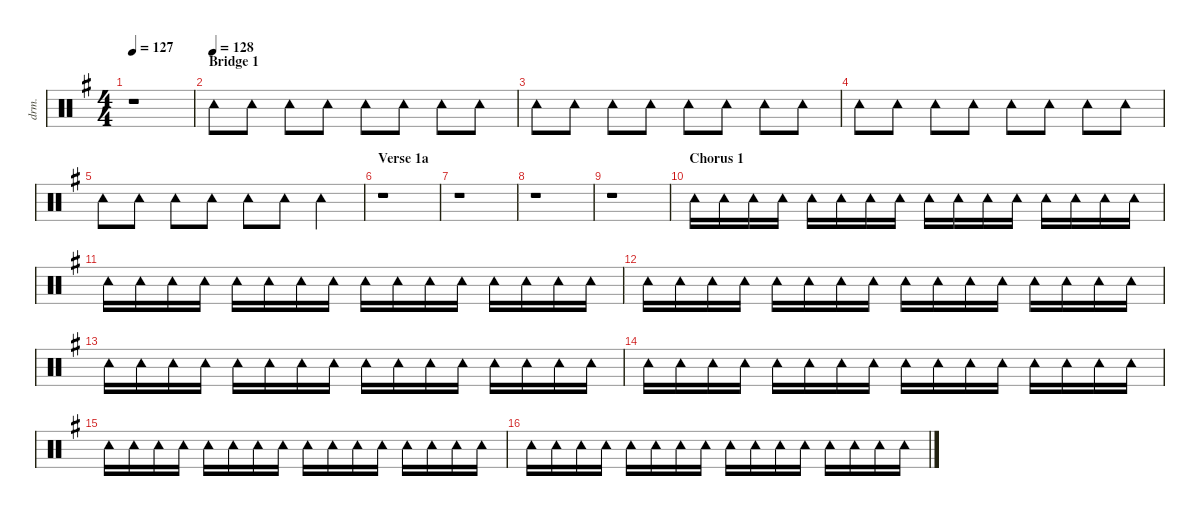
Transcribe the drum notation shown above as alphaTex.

\defaultSystemsLayout 4
\hideDynamics
\bracketExtendMode nobrackets
\otherSystemsTrackNameOrientation horizontal
\track ("Percussion" "drm.") {defaultSystemsLayout 8 instrument percussion}
\staff {score}
\articulation defaults
\ts (4 4)
\tempo 127
\clef neutral
\ks eminor
r.1{dy f beam Down} |
\section ("" "Bridge 1")
\tempo (128)
"Tambourine (hit)"{acc forcenatural}.8{beam Down} "Tambourine (hit)"{acc forcenatural}.8{beam Down} "Tambourine (hit)"{acc forcenatural}.8{dy fff beam Down} "Tambourine (hit)"{acc forcenatural}.8{dy f beam Down} "Tambourine (hit)"{acc forcenatural}.8{beam Down} "Tambourine (hit)"{acc forcenatural}.8{beam Down} "Tambourine (hit)"{acc forcenatural}.8{dy fff beam Down} "Tambourine (hit)"{acc forcenatural}.8{dy f beam Down} |
"Tambourine (hit)"{acc forcenatural}.8{beam Down} "Tambourine (hit)"{acc forcenatural}.8{beam Down} "Tambourine (hit)"{acc forcenatural}.8{dy fff beam Down} "Tambourine (hit)"{acc forcenatural}.8{dy f beam Down} "Tambourine (hit)"{acc forcenatural}.8{beam Down} "Tambourine (hit)"{acc forcenatural}.8{beam Down} "Tambourine (hit)"{acc forcenatural}.8{dy fff beam Down} "Tambourine (hit)"{acc forcenatural}.8{dy f beam Down} |
"Tambourine (hit)"{acc forcenatural}.8{beam Down} "Tambourine (hit)"{acc forcenatural}.8{beam Down} "Tambourine (hit)"{acc forcenatural}.8{dy fff beam Down} "Tambourine (hit)"{acc forcenatural}.8{dy f beam Down} "Tambourine (hit)"{acc forcenatural}.8{beam Down} "Tambourine (hit)"{acc forcenatural}.8{beam Down} "Tambourine (hit)"{acc forcenatural}.8{dy fff beam Down} "Tambourine (hit)"{acc forcenatural}.8{dy f beam Down} |
"Tambourine (hit)"{acc forcenatural}.8{beam Down} "Tambourine (hit)"{acc forcenatural}.8{beam Down} "Tambourine (hit)"{acc forcenatural}.8{dy fff beam Down} "Tambourine (hit)"{acc forcenatural}.8{dy f beam Down} "Tambourine (hit)"{acc forcenatural}.8{beam Down} "Tambourine (hit)"{acc forcenatural}.8{beam Down} "Tambourine (hit)"{acc forcenatural}.4{dy fff beam Down} |
\section ("" "Verse 1a")
r.1{beam Down} |
r.1{beam Down} |
r.1{beam Down} |
r.1{beam Down} |
\section ("" "Chorus 1")
"Tambourine (hit)"{acc forcenatural}.16{dy f beam Down} "Tambourine (hit)"{acc forcenatural}.16{beam Down} "Tambourine (hit)"{acc forcenatural}.16{beam Down} "Tambourine (hit)"{acc forcenatural}.16{beam Down} "Tambourine (hit)"{acc forcenatural}.16{dy fff beam Down} "Tambourine (hit)"{acc forcenatural}.16{dy f beam Down} "Tambourine (hit)"{acc forcenatural}.16{beam Down} "Tambourine (hit)"{acc forcenatural}.16{beam Down} "Tambourine (hit)"{acc forcenatural}.16{beam Down} "Tambourine (hit)"{acc forcenatural}.16{beam Down} "Tambourine (hit)"{acc forcenatural}.16{beam Down} "Tambourine (hit)"{acc forcenatural}.16{beam Down} "Tambourine (hit)"{acc forcenatural}.16{dy fff beam Down} "Tambourine (hit)"{acc forcenatural}.16{dy f beam Down} "Tambourine (hit)"{acc forcenatural}.16{beam Down} "Tambourine (hit)"{acc forcenatural}.16{beam Down} |
"Tambourine (hit)"{acc forcenatural}.16{beam Down} "Tambourine (hit)"{acc forcenatural}.16{beam Down} "Tambourine (hit)"{acc forcenatural}.16{beam Down} "Tambourine (hit)"{acc forcenatural}.16{beam Down} "Tambourine (hit)"{acc forcenatural}.16{dy fff beam Down} "Tambourine (hit)"{acc forcenatural}.16{dy f beam Down} "Tambourine (hit)"{acc forcenatural}.16{beam Down} "Tambourine (hit)"{acc forcenatural}.16{beam Down} "Tambourine (hit)"{acc forcenatural}.16{beam Down} "Tambourine (hit)"{acc forcenatural}.16{beam Down} "Tambourine (hit)"{acc forcenatural}.16{beam Down} "Tambourine (hit)"{acc forcenatural}.16{beam Down} "Tambourine (hit)"{acc forcenatural}.16{dy fff beam Down} "Tambourine (hit)"{acc forcenatural}.16{dy f beam Down} "Tambourine (hit)"{acc forcenatural}.16{beam Down} "Tambourine (hit)"{acc forcenatural}.16{beam Down} |
"Tambourine (hit)"{acc forcenatural}.16{beam Down} "Tambourine (hit)"{acc forcenatural}.16{beam Down} "Tambourine (hit)"{acc forcenatural}.16{beam Down} "Tambourine (hit)"{acc forcenatural}.16{beam Down} "Tambourine (hit)"{acc forcenatural}.16{dy fff beam Down} "Tambourine (hit)"{acc forcenatural}.16{dy f beam Down} "Tambourine (hit)"{acc forcenatural}.16{beam Down} "Tambourine (hit)"{acc forcenatural}.16{beam Down} "Tambourine (hit)"{acc forcenatural}.16{beam Down} "Tambourine (hit)"{acc forcenatural}.16{beam Down} "Tambourine (hit)"{acc forcenatural}.16{beam Down} "Tambourine (hit)"{acc forcenatural}.16{beam Down} "Tambourine (hit)"{acc forcenatural}.16{dy fff beam Down} "Tambourine (hit)"{acc forcenatural}.16{dy f beam Down} "Tambourine (hit)"{acc forcenatural}.16{beam Down} "Tambourine (hit)"{acc forcenatural}.16{beam Down} |
"Tambourine (hit)"{acc forcenatural}.16{beam Down} "Tambourine (hit)"{acc forcenatural}.16{beam Down} "Tambourine (hit)"{acc forcenatural}.16{beam Down} "Tambourine (hit)"{acc forcenatural}.16{beam Down} "Tambourine (hit)"{acc forcenatural}.16{dy fff beam Down} "Tambourine (hit)"{acc forcenatural}.16{dy f beam Down} "Tambourine (hit)"{acc forcenatural}.16{beam Down} "Tambourine (hit)"{acc forcenatural}.16{beam Down} "Tambourine (hit)"{acc forcenatural}.16{beam Down} "Tambourine (hit)"{acc forcenatural}.16{beam Down} "Tambourine (hit)"{acc forcenatural}.16{beam Down} "Tambourine (hit)"{acc forcenatural}.16{beam Down} "Tambourine (hit)"{acc forcenatural}.16{dy fff beam Down} "Tambourine (hit)"{acc forcenatural}.16{dy f beam Down} "Tambourine (hit)"{acc forcenatural}.16{beam Down} "Tambourine (hit)"{acc forcenatural}.16{beam Down} |
"Tambourine (hit)"{acc forcenatural}.16{beam Down} "Tambourine (hit)"{acc forcenatural}.16{beam Down} "Tambourine (hit)"{acc forcenatural}.16{beam Down} "Tambourine (hit)"{acc forcenatural}.16{beam Down} "Tambourine (hit)"{acc forcenatural}.16{dy fff beam Down} "Tambourine (hit)"{acc forcenatural}.16{dy f beam Down} "Tambourine (hit)"{acc forcenatural}.16{beam Down} "Tambourine (hit)"{acc forcenatural}.16{beam Down} "Tambourine (hit)"{acc forcenatural}.16{beam Down} "Tambourine (hit)"{acc forcenatural}.16{beam Down} "Tambourine (hit)"{acc forcenatural}.16{beam Down} "Tambourine (hit)"{acc forcenatural}.16{beam Down} "Tambourine (hit)"{acc forcenatural}.16{dy fff beam Down} "Tambourine (hit)"{acc forcenatural}.16{dy f beam Down} "Tambourine (hit)"{acc forcenatural}.16{beam Down} "Tambourine (hit)"{acc forcenatural}.16{beam Down} |
"Tambourine (hit)"{acc forcenatural}.16{beam Down} "Tambourine (hit)"{acc forcenatural}.16{beam Down} "Tambourine (hit)"{acc forcenatural}.16{beam Down} "Tambourine (hit)"{acc forcenatural}.16{beam Down} "Tambourine (hit)"{acc forcenatural}.16{dy fff beam Down} "Tambourine (hit)"{acc forcenatural}.16{dy f beam Down} "Tambourine (hit)"{acc forcenatural}.16{beam Down} "Tambourine (hit)"{acc forcenatural}.16{beam Down} "Tambourine (hit)"{acc forcenatural}.16{beam Down} "Tambourine (hit)"{acc forcenatural}.16{beam Down} "Tambourine (hit)"{acc forcenatural}.16{beam Down} "Tambourine (hit)"{acc forcenatural}.16{beam Down} "Tambourine (hit)"{acc forcenatural}.16{dy fff beam Down} "Tambourine (hit)"{acc forcenatural}.16{dy f beam Down} "Tambourine (hit)"{acc forcenatural}.16{beam Down} "Tambourine (hit)"{acc forcenatural}.16{beam Down} |
"Tambourine (hit)"{acc forcenatural}.16{beam Down} "Tambourine (hit)"{acc forcenatural}.16{beam Down} "Tambourine (hit)"{acc forcenatural}.16{beam Down} "Tambourine (hit)"{acc forcenatural}.16{beam Down} "Tambourine (hit)"{acc forcenatural}.16{dy fff beam Down} "Tambourine (hit)"{acc forcenatural}.16{dy f beam Down} "Tambourine (hit)"{acc forcenatural}.16{beam Down} "Tambourine (hit)"{acc forcenatural}.16{beam Down} "Tambourine (hit)"{acc forcenatural}.16{beam Down} "Tambourine (hit)"{acc forcenatural}.16{beam Down} "Tambourine (hit)"{acc forcenatural}.16{beam Down} "Tambourine (hit)"{acc forcenatural}.16{beam Down} "Tambourine (hit)"{acc forcenatural}.16{dy fff beam Down} "Tambourine (hit)"{acc forcenatural}.16{dy f beam Down} "Tambourine (hit)"{acc forcenatural}.16{beam Down} "Tambourine (hit)"{acc forcenatural}.16{beam Down}
